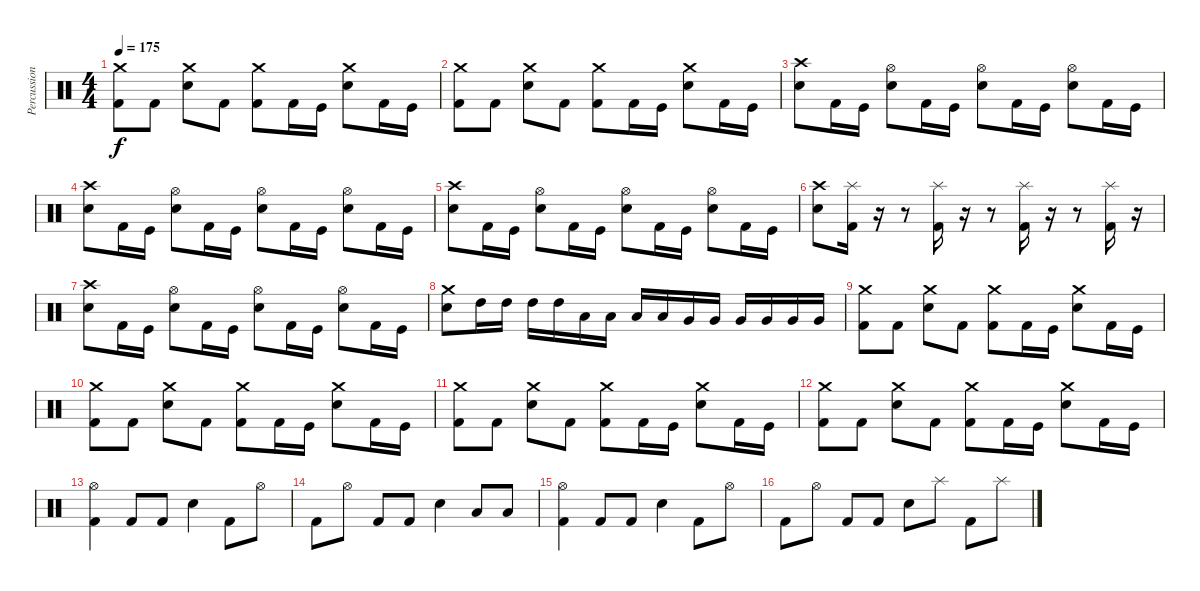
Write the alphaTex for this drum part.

\track ("Percussion" "Percussion") {instrument percussion}
\staff {score}
\articulation defaults
\ts (4 4)
\tempo 175
\clef neutral
\ks c
("Kick (hit) 2" "Crash medium (hit)").8{dy f} "Kick (hit) 2".8 ("Snare (hit) 2" "Crash medium (hit)").8 "Kick (hit) 2".8 ("Kick (hit) 2" "Crash medium (hit)").8 "Kick (hit) 2".16 "Kick (hit)".16 ("Snare (hit) 2" "Crash medium (hit)").8 "Kick (hit) 2".16 "Kick (hit)".16 |
("Kick (hit) 2" "Crash medium (hit)").8 "Kick (hit) 2".8 ("Snare (hit) 2" "Crash medium (hit)").8 "Kick (hit) 2".8 ("Kick (hit) 2" "Crash medium (hit)").8 "Kick (hit) 2".16 "Kick (hit)".16 ("Snare (hit) 2" "Crash medium (hit)").8 "Kick (hit) 2".16 "Kick (hit)".16 |
("Snare (hit) 2" "Crash high (hit)").8 "Kick (hit) 2".16 "Kick (hit)".16 ("Snare (hit) 2" "Hi-Hat (open)").8 "Kick (hit) 2".16 "Kick (hit)".16 ("Snare (hit) 2" "Hi-Hat (open)").8 "Kick (hit) 2".16 "Kick (hit)".16 ("Snare (hit) 2" "Hi-Hat (open)").8 "Kick (hit) 2".16 "Kick (hit)".16 |
("Snare (hit) 2" "Crash high (hit)").8 "Kick (hit) 2".16 "Kick (hit)".16 ("Snare (hit) 2" "Hi-Hat (open)").8 "Kick (hit) 2".16 "Kick (hit)".16 ("Snare (hit) 2" "Hi-Hat (open)").8 "Kick (hit) 2".16 "Kick (hit)".16 ("Snare (hit) 2" "Hi-Hat (open)").8 "Kick (hit) 2".16 "Kick (hit)".16 |
("Snare (hit) 2" "Crash high (hit)").8 "Kick (hit) 2".16 "Kick (hit)".16 ("Snare (hit) 2" "Hi-Hat (open)").8 "Kick (hit) 2".16 "Kick (hit)".16 ("Snare (hit) 2" "Hi-Hat (open)").8 "Kick (hit) 2".16 "Kick (hit)".16 ("Snare (hit) 2" "Hi-Hat (open)").8 "Kick (hit) 2".16 "Kick (hit)".16 |
("Snare (hit) 2" "Crash high (hit)").8 ("Kick (hit) 2" "Splash (hit)").16 r.16 r.8 ("Kick (hit) 2" "Splash (hit)").16 r.16 r.8 ("Kick (hit) 2" "Splash (hit)").16 r.16 r.8 ("Kick (hit) 2" "Splash (hit)").16 r.16 |
("Snare (hit) 2" "Crash high (hit)").8 "Kick (hit) 2".16 "Kick (hit)".16 ("Snare (hit) 2" "Hi-Hat (open)").8 "Kick (hit) 2".16 "Kick (hit)".16 ("Snare (hit) 2" "Hi-Hat (open)").8 "Kick (hit) 2".16 "Kick (hit)".16 ("Snare (hit) 2" "Hi-Hat (open)").8 "Kick (hit) 2".16 "Kick (hit)".16 |
("Snare (hit) 2" "Crash medium (hit)").8 "High Tom (hit)".16 "High Tom (hit)".16 "High Tom (hit)".16 "High Tom (hit)".16 "Low Tom (hit)".16 "Low Tom (hit)".16 "Low Tom (hit)".16 "Low Tom (hit)".16 "Very Low Tom (hit)".16 "Very Low Tom (hit)".16 "Very Low Tom (hit)".16 "Very Low Tom (hit)".16 "Very Low Tom (hit)".16 "Very Low Tom (hit)".16 |
("Kick (hit) 2" "Crash medium (hit)").8 "Kick (hit) 2".8 ("Snare (hit) 2" "Crash medium (hit)").8 "Kick (hit) 2".8 ("Kick (hit) 2" "Crash medium (hit)").8 "Kick (hit) 2".16 "Kick (hit)".16 ("Snare (hit) 2" "Crash medium (hit)").8 "Kick (hit) 2".16 "Kick (hit)".16 |
("Kick (hit) 2" "Crash medium (hit)").8 "Kick (hit) 2".8 ("Snare (hit) 2" "Crash medium (hit)").8 "Kick (hit) 2".8 ("Kick (hit) 2" "Crash medium (hit)").8 "Kick (hit) 2".16 "Kick (hit)".16 ("Snare (hit) 2" "Crash medium (hit)").8 "Kick (hit) 2".16 "Kick (hit)".16 |
("Kick (hit) 2" "Crash medium (hit)").8 "Kick (hit) 2".8 ("Snare (hit) 2" "Crash medium (hit)").8 "Kick (hit) 2".8 ("Kick (hit) 2" "Crash medium (hit)").8 "Kick (hit) 2".16 "Kick (hit)".16 ("Snare (hit) 2" "Crash medium (hit)").8 "Kick (hit) 2".16 "Kick (hit)".16 |
("Kick (hit) 2" "Crash medium (hit)").8 "Kick (hit) 2".8 ("Snare (hit) 2" "Crash medium (hit)").8 "Kick (hit) 2".8 ("Kick (hit) 2" "Crash medium (hit)").8 "Kick (hit) 2".16 "Kick (hit)".16 ("Snare (hit) 2" "Crash medium (hit)").8 "Kick (hit) 2".16 "Kick (hit)".16 |
("Kick (hit) 2" "Hi-Hat (open)").4 "Kick (hit) 2".8 "Kick (hit) 2".8 "Snare (hit) 2".4 "Kick (hit) 2".8 "Hi-Hat (open)".8 |
"Kick (hit) 2".8 "Hi-Hat (open)".8 "Kick (hit) 2".8 "Kick (hit) 2".8 "Snare (hit) 2".4 "Low Tom (hit)".8 "Low Floor Tom (hit)".8 |
("Kick (hit) 2" "Hi-Hat (open)").4 "Kick (hit) 2".8 "Kick (hit) 2".8 "Snare (hit) 2".4 "Kick (hit) 2".8 "Hi-Hat (open)".8 |
"Kick (hit) 2".8 "Hi-Hat (open)".8 "Kick (hit) 2".8 "Kick (hit) 2".8 "Snare (hit) 2".8 "Splash (hit)".8 "Kick (hit) 2".8 "Splash (hit)".8
